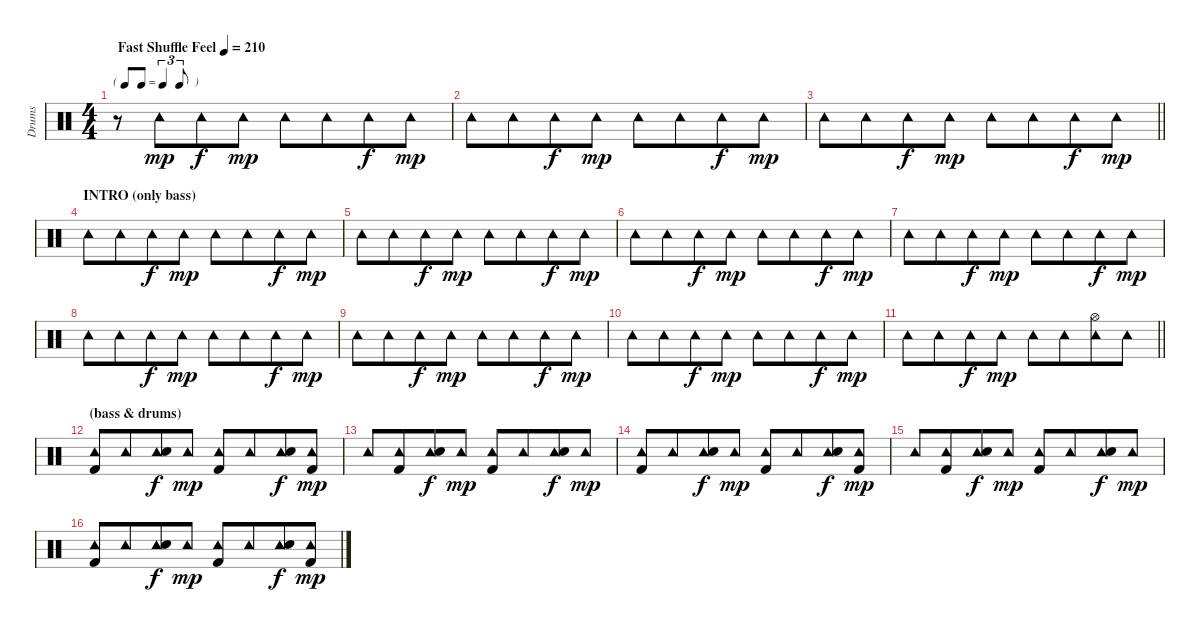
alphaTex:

\track ("Drums" "Drums") {instrument percussion}
\staff {score}
\articulation defaults
\ts (4 4)
\tf triplet8th
\tempo (210 "Fast Shuffle Feel")
\clef neutral
\ks c
r.8{dy mp} "Tambourine (hit)".8{beam merge} "Tambourine (hit)".8{dy f} "Tambourine (hit)".8{dy mp} "Tambourine (hit)".8 "Tambourine (hit)".8{beam merge} "Tambourine (hit)".8{dy f} "Tambourine (hit)".8{dy mp} |
"Tambourine (hit)".8 "Tambourine (hit)".8{beam merge} "Tambourine (hit)".8{dy f} "Tambourine (hit)".8{dy mp} "Tambourine (hit)".8 "Tambourine (hit)".8{beam merge} "Tambourine (hit)".8{dy f} "Tambourine (hit)".8{dy mp} |
\barLineRight lightlight "Tambourine (hit)".8 "Tambourine (hit)".8{beam merge} "Tambourine (hit)".8{dy f} "Tambourine (hit)".8{dy mp} "Tambourine (hit)".8 "Tambourine (hit)".8{beam merge} "Tambourine (hit)".8{dy f} "Tambourine (hit)".8{dy mp}
|
\section ("" "INTRO (only bass)")
"Tambourine (hit)".8 "Tambourine (hit)".8{beam merge} "Tambourine (hit)".8{dy f} "Tambourine (hit)".8{dy mp} "Tambourine (hit)".8 "Tambourine (hit)".8{beam merge} "Tambourine (hit)".8{dy f} "Tambourine (hit)".8{dy mp} |
"Tambourine (hit)".8 "Tambourine (hit)".8{beam merge} "Tambourine (hit)".8{dy f} "Tambourine (hit)".8{dy mp} "Tambourine (hit)".8 "Tambourine (hit)".8{beam merge} "Tambourine (hit)".8{dy f} "Tambourine (hit)".8{dy mp} |
"Tambourine (hit)".8 "Tambourine (hit)".8{beam merge} "Tambourine (hit)".8{dy f} "Tambourine (hit)".8{dy mp} "Tambourine (hit)".8 "Tambourine (hit)".8{beam merge} "Tambourine (hit)".8{dy f} "Tambourine (hit)".8{dy mp} |
"Tambourine (hit)".8 "Tambourine (hit)".8{beam merge} "Tambourine (hit)".8{dy f} "Tambourine (hit)".8{dy mp} "Tambourine (hit)".8 "Tambourine (hit)".8{beam merge} "Tambourine (hit)".8{dy f} "Tambourine (hit)".8{dy mp} |
"Tambourine (hit)".8 "Tambourine (hit)".8{beam merge} "Tambourine (hit)".8{dy f} "Tambourine (hit)".8{dy mp} "Tambourine (hit)".8 "Tambourine (hit)".8{beam merge} "Tambourine (hit)".8{dy f} "Tambourine (hit)".8{dy mp} |
"Tambourine (hit)".8 "Tambourine (hit)".8{beam merge} "Tambourine (hit)".8{dy f} "Tambourine (hit)".8{dy mp} "Tambourine (hit)".8 "Tambourine (hit)".8{beam merge} "Tambourine (hit)".8{dy f} "Tambourine (hit)".8{dy mp} |
"Tambourine (hit)".8 "Tambourine (hit)".8{beam merge} "Tambourine (hit)".8{dy f} "Tambourine (hit)".8{dy mp} "Tambourine (hit)".8 "Tambourine (hit)".8{beam merge} "Tambourine (hit)".8{dy f} "Tambourine (hit)".8{dy mp} |
\barLineRight lightlight "Tambourine (hit)".8 "Tambourine (hit)".8{beam merge} "Tambourine (hit)".8{dy f} "Tambourine (hit)".8{dy mp} "Tambourine (hit)".8 "Tambourine (hit)".8{beam merge}
("Tambourine (hit)" "Hi-Hat (open)").8 "Tambourine (hit)".8 |
\section ("" "(bass & drums)")
("Tambourine (hit)" "Kick (hit) 2").8 "Tambourine (hit)".8{beam merge} ("Tambourine (hit)" "Electric Snare (hit)").8{dy f} "Tambourine (hit)".8{dy mp} ("Tambourine (hit)" "Kick (hit) 2").8 "Tambourine (hit)".8{beam merge} ("Tambourine (hit)" "Electric Snare (hit)").8{dy f} ("Tambourine (hit)" "Kick (hit) 2").8{dy mp} |
"Tambourine (hit)".8 ("Tambourine (hit)" "Kick (hit) 2").8{beam merge} ("Tambourine (hit)" "Electric Snare (hit)").8{dy f} "Tambourine (hit)".8{dy mp} ("Tambourine (hit)" "Kick (hit) 2").8 "Tambourine (hit)".8{beam merge} ("Tambourine (hit)" "Electric Snare (hit)").8{dy f} "Tambourine (hit)".8{dy mp} |
("Tambourine (hit)" "Kick (hit) 2").8 "Tambourine (hit)".8{beam merge} ("Tambourine (hit)" "Electric Snare (hit)").8{dy f} "Tambourine (hit)".8{dy mp} ("Tambourine (hit)" "Kick (hit) 2").8 "Tambourine (hit)".8{beam merge} ("Tambourine (hit)" "Electric Snare (hit)").8{dy f} ("Tambourine (hit)" "Kick (hit) 2").8{dy mp} |
"Tambourine (hit)".8 ("Tambourine (hit)" "Kick (hit) 2").8{beam merge} ("Tambourine (hit)" "Electric Snare (hit)").8{dy f} "Tambourine (hit)".8{dy mp} ("Tambourine (hit)" "Kick (hit) 2").8 "Tambourine (hit)".8{beam merge} ("Tambourine (hit)" "Electric Snare (hit)").8{dy f} "Tambourine (hit)".8{dy mp} |
("Tambourine (hit)" "Kick (hit) 2").8 "Tambourine (hit)".8{beam merge} ("Tambourine (hit)" "Electric Snare (hit)").8{dy f} "Tambourine (hit)".8{dy mp} ("Tambourine (hit)" "Kick (hit) 2").8 "Tambourine (hit)".8{beam merge} ("Tambourine (hit)" "Electric Snare (hit)").8{dy f} ("Tambourine (hit)" "Kick (hit) 2").8{dy mp}
